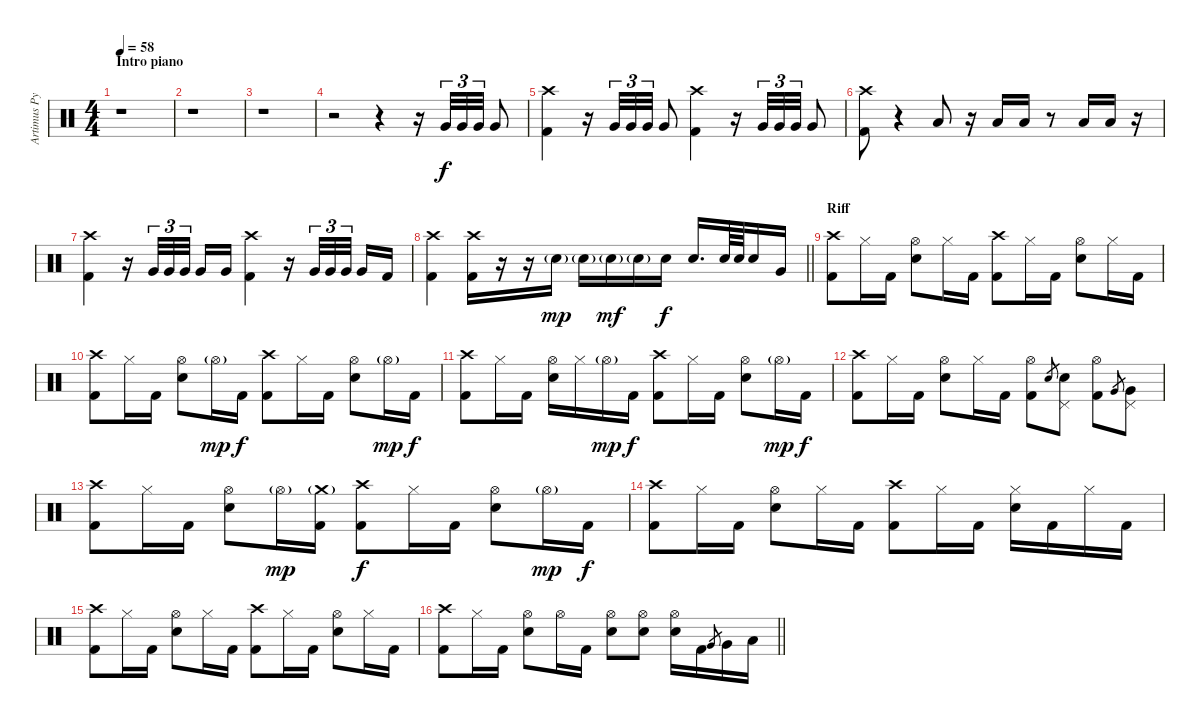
\track ("Artimus Pyle (drums)" "Artimus Py") {instrument percussion}
\staff {score}
\articulation defaults
\ts (4 4)
\section ("" "Intro piano")
\tempo 58
\clef neutral
\ks c
r.1{dy f} |
r.1 |
r.1 |
r.2 r.4 r.16 "Very Low Tom (hit)".32{tu (3 2)} "Very Low Tom (hit)".32{tu (3 2)} "Very Low Tom (hit)".32{tu (3 2)} "Very Low Tom (hit)".8 |
("Crash high (hit)" "Kick (hit) 2").4 r.16 "Very Low Tom (hit)".32{tu (3 2)} "Very Low Tom (hit)".32{tu (3 2)} "Very Low Tom (hit)".32{tu (3 2)} "Very Low Tom (hit)".8 ("Crash high (hit)" "Kick (hit) 2").4 r.16 "Very Low Tom (hit)".32{tu (3 2)} "Very Low Tom (hit)".32{tu (3 2)} "Very Low Tom (hit)".32{tu (3 2)} "Very Low Tom (hit)".8 |
("Crash high (hit)" "Kick (hit) 2").8 r.4 "Low Tom (hit)".8 r.16 "Low Tom (hit)".16 "Low Tom (hit)".16 r.8 "Low Tom (hit)".16 "Low Tom (hit)".16 r.16 |
("Crash high (hit)" "Kick (hit) 2").4 r.16 "Very Low Tom (hit)".32{tu (3 2)} "Very Low Tom (hit)".32{tu (3 2)} "Very Low Tom (hit)".32{tu (3 2)} "Very Low Tom (hit)".16 "Very Low Tom (hit)".16 ("Crash high (hit)" "Kick (hit) 2").4 r.16 "Very Low Tom (hit)".32{tu (3 2)} "Very Low Tom (hit)".32{tu (3 2)} "Very Low Tom (hit)".32{tu (3 2)} "Very Low Tom (hit)".16 "Kick (hit) 2".16 |
\barLineRight lightlight
("Crash high (hit)" "Kick (hit) 2").4 ("Crash high (hit)" "Kick (hit) 2").16 r.16 r.16 "Electric Snare (hit)"{g}.16{dy mp} "Electric Snare (hit)"{g}.16 "Electric Snare (hit)"{g}.16{dy mf} "Electric Snare (hit)"{g}.16 "Electric Snare (hit)".16{dy f} "Electric Snare (hit)".16{d} "Electric Snare (hit)".64 "Electric Snare (hit)".64 "Electric Snare (hit)".16 "Very Low Tom (hit)".16 |
\section ("" "Riff")
("Crash high (hit)" "Kick (hit) 2").8 "Hi-Hat (closed)".16 "Kick (hit) 2".16 ("Hi-Hat (open)" "Electric Snare (hit)").8 "Hi-Hat (closed)".16 "Kick (hit) 2".16 ("Crash high (hit)" "Kick (hit) 2").8 "Hi-Hat (closed)".16 "Kick (hit) 2".16 ("Hi-Hat (open)" "Electric Snare (hit)").8 "Hi-Hat (closed)".16 "Kick (hit) 2".16 |
("Crash high (hit)" "Kick (hit) 2").8 "Hi-Hat (closed)".16 "Kick (hit) 2".16 ("Hi-Hat (open)" "Electric Snare (hit)").8 "Hi-Hat (open)"{g}.16{dy mp} "Kick (hit) 2".16{dy f} ("Crash high (hit)" "Kick (hit) 2").8 "Hi-Hat (closed)".16 "Kick (hit) 2".16 ("Hi-Hat (open)" "Electric Snare (hit)").8 "Hi-Hat (open)"{g}.16{dy mp} "Kick (hit) 2".16{dy f} |
("Crash high (hit)" "Kick (hit) 2").8 "Hi-Hat (closed)".16 "Kick (hit) 2".16 ("Hi-Hat (open)" "Electric Snare (hit)").16 "Hi-Hat (closed)".16 "Hi-Hat (open)"{g}.16{dy mp} "Kick (hit) 2".16{dy f} ("Crash high (hit)" "Kick (hit) 2").8 "Hi-Hat (closed)".16 "Kick (hit) 2".16 ("Hi-Hat (open)" "Electric Snare (hit)").8 "Hi-Hat (open)"{g}.16{dy mp} "Kick (hit) 2".16{dy f} |
("Crash high (hit)" "Kick (hit) 2").8 "Hi-Hat (closed)".16 "Kick (hit) 2".16 ("Hi-Hat (open)" "Electric Snare (hit)").8 "Hi-Hat (closed)".16 "Kick (hit) 2".16 ("Hi-Hat (open)" "Kick (hit) 2").8 "Electric Snare (hit)".8{gr} ("Pedal Hi-Hat (hit)" "Electric Snare (hit)").8 ("Hi-Hat (open)" "Kick (hit) 2").8 "Very Low Tom (hit)".8{gr} ("Pedal Hi-Hat (hit)" "Very Low Tom (hit)").8 |
("Crash high (hit)" "Kick (hit) 2").8 "Hi-Hat (closed)".16 "Kick (hit) 2".16 ("Hi-Hat (open)" "Electric Snare (hit)").8 "Hi-Hat (open)"{g}.16{dy mp} ("Crash medium (hit)"{g} "Kick (hit) 2").16 ("Crash high (hit)" "Kick (hit) 2").8{dy f} "Hi-Hat (closed)".16 "Kick (hit) 2".16 ("Hi-Hat (open)" "Electric Snare (hit)").8 "Hi-Hat (open)"{g}.16{dy mp} "Kick (hit) 2".16{dy f} |
("Crash high (hit)" "Kick (hit) 2").8 "Hi-Hat (closed)".16 "Kick (hit) 2".16 ("Hi-Hat (open)" "Electric Snare (hit)").8 "Hi-Hat (closed)".16 "Kick (hit) 2".16 ("Crash high (hit)" "Kick (hit) 2").8 "Hi-Hat (closed)".16 "Kick (hit) 2".16 ("Hi-Hat (closed)" "Electric Snare (hit)").16 "Kick (hit) 2".16 "Hi-Hat (closed)".16 "Kick (hit) 2".16 |
("Crash high (hit)" "Kick (hit) 2").8 "Hi-Hat (closed)".16 "Kick (hit) 2".16 ("Hi-Hat (open)" "Electric Snare (hit)").8 "Hi-Hat (closed)".16 "Kick (hit) 2".16 ("Crash high (hit)" "Kick (hit) 2").8 "Hi-Hat (closed)".16 "Kick (hit) 2".16 ("Hi-Hat (open)" "Electric Snare (hit)").8 "Hi-Hat (closed)".16 "Kick (hit) 2".16 |
\barLineRight lightlight
("Crash high (hit)" "Kick (hit) 2").8 "Hi-Hat (closed)".16 "Kick (hit) 2".16 ("Hi-Hat (open)" "Electric Snare (hit)").8 "Hi-Hat (open)".16 "Kick (hit) 2".16 ("Hi-Hat (open)" "Electric Snare (hit)").8 ("Hi-Hat (open)" "Electric Snare (hit)").8 ("Hi-Hat (open)" "Electric Snare (hit)").16 "Kick (hit) 2".16 "Very Low Tom (hit)".8{gr} "Very Low Tom (hit)".16 "Low Floor Tom (hit)".16
